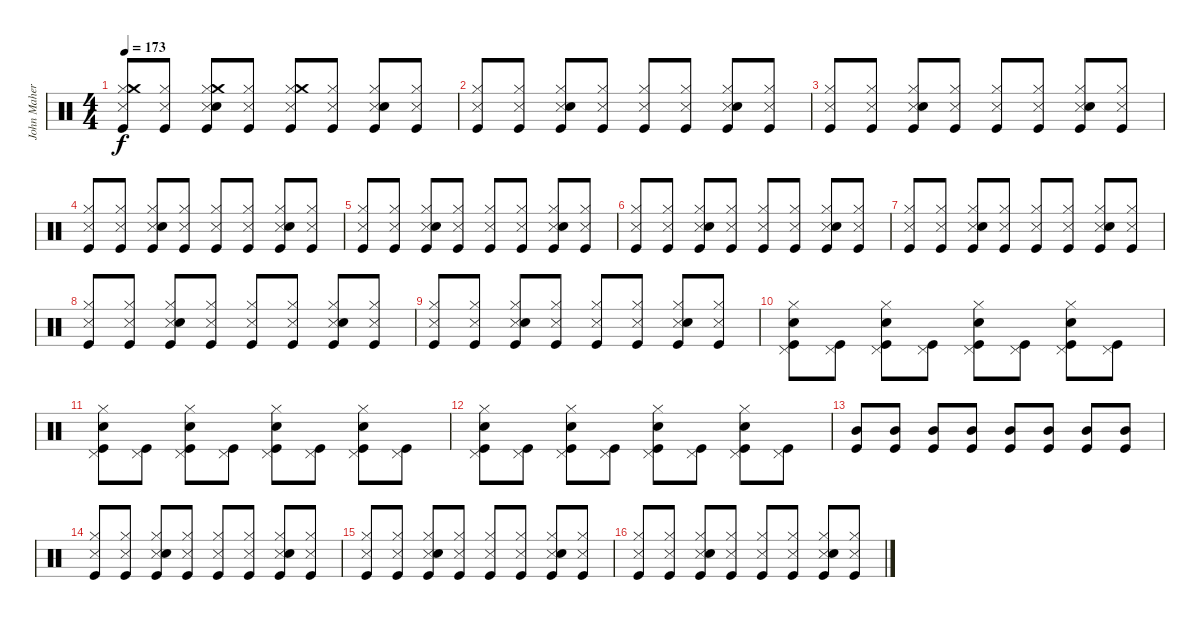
\track ("John Maher" "John Maher") {instrument percussion}
\staff {score}
\articulation defaults
\ts (4 4)
\tempo 173
\clef neutral
\ks c
("Snare (side stick) 3" "Hi-Hat (closed)" "Crash medium (hit)" "Kick (hit)").8{dy f} ("Snare (side stick) 3" "Hi-Hat (closed)" "Kick (hit)").8 ("Snare (side stick) 3" "Hi-Hat (closed)" "Crash medium (hit)" "Snare (hit) 2" "Kick (hit)").8 ("Snare (side stick) 3" "Hi-Hat (closed)" "Kick (hit)").8 ("Snare (side stick) 3" "Hi-Hat (closed)" "Crash medium (hit)" "Kick (hit)").8 ("Snare (side stick) 3" "Hi-Hat (closed)" "Kick (hit)").8 ("Snare (side stick) 3" "Hi-Hat (closed)" "Snare (hit) 2" "Kick (hit)").8 ("Snare (side stick) 3" "Hi-Hat (closed)" "Kick (hit)").8 |
("Snare (side stick) 3" "Hi-Hat (closed)" "Kick (hit)").8 ("Snare (side stick) 3" "Hi-Hat (closed)" "Kick (hit)").8 ("Snare (side stick) 3" "Hi-Hat (closed)" "Snare (hit) 2" "Kick (hit)").8 ("Snare (side stick) 3" "Hi-Hat (closed)" "Kick (hit)").8 ("Snare (side stick) 3" "Hi-Hat (closed)" "Kick (hit)").8 ("Snare (side stick) 3" "Hi-Hat (closed)" "Kick (hit)").8 ("Snare (side stick) 3" "Hi-Hat (closed)" "Snare (hit) 2" "Kick (hit)").8 ("Snare (side stick) 3" "Hi-Hat (closed)" "Kick (hit)").8 |
("Snare (side stick) 3" "Hi-Hat (closed)" "Kick (hit)").8 ("Snare (side stick) 3" "Hi-Hat (closed)" "Kick (hit)").8 ("Snare (side stick) 3" "Hi-Hat (closed)" "Snare (hit) 2" "Kick (hit)").8 ("Snare (side stick) 3" "Hi-Hat (closed)" "Kick (hit)").8 ("Snare (side stick) 3" "Hi-Hat (closed)" "Kick (hit)").8 ("Snare (side stick) 3" "Hi-Hat (closed)" "Kick (hit)").8 ("Snare (side stick) 3" "Hi-Hat (closed)" "Snare (hit) 2" "Kick (hit)").8 ("Snare (side stick) 3" "Hi-Hat (closed)" "Kick (hit)").8 |
("Snare (side stick) 3" "Hi-Hat (closed)" "Kick (hit)").8 ("Snare (side stick) 3" "Hi-Hat (closed)" "Kick (hit)").8 ("Snare (side stick) 3" "Hi-Hat (closed)" "Snare (hit) 2" "Kick (hit)").8 ("Snare (side stick) 3" "Hi-Hat (closed)" "Kick (hit)").8 ("Snare (side stick) 3" "Hi-Hat (closed)" "Kick (hit)").8 ("Snare (side stick) 3" "Hi-Hat (closed)" "Kick (hit)").8 ("Snare (side stick) 3" "Hi-Hat (closed)" "Snare (hit) 2" "Kick (hit)").8 ("Snare (side stick) 3" "Hi-Hat (closed)" "Kick (hit)").8 |
("Snare (side stick) 3" "Hi-Hat (closed)" "Kick (hit)").8 ("Snare (side stick) 3" "Hi-Hat (closed)" "Kick (hit)").8 ("Snare (side stick) 3" "Hi-Hat (closed)" "Snare (hit) 2" "Kick (hit)").8 ("Snare (side stick) 3" "Hi-Hat (closed)" "Kick (hit)").8 ("Snare (side stick) 3" "Hi-Hat (closed)" "Kick (hit)").8 ("Snare (side stick) 3" "Hi-Hat (closed)" "Kick (hit)").8 ("Snare (side stick) 3" "Hi-Hat (closed)" "Snare (hit) 2" "Kick (hit)").8 ("Snare (side stick) 3" "Hi-Hat (closed)" "Kick (hit)").8 |
("Snare (side stick) 3" "Hi-Hat (closed)" "Kick (hit)").8 ("Snare (side stick) 3" "Hi-Hat (closed)" "Kick (hit)").8 ("Snare (side stick) 3" "Hi-Hat (closed)" "Snare (hit) 2" "Kick (hit)").8 ("Snare (side stick) 3" "Hi-Hat (closed)" "Kick (hit)").8 ("Snare (side stick) 3" "Hi-Hat (closed)" "Kick (hit)").8 ("Snare (side stick) 3" "Hi-Hat (closed)" "Kick (hit)").8 ("Snare (side stick) 3" "Hi-Hat (closed)" "Snare (hit) 2" "Kick (hit)").8 ("Snare (side stick) 3" "Hi-Hat (closed)" "Kick (hit)").8 |
("Snare (side stick) 3" "Hi-Hat (closed)" "Kick (hit)").8 ("Snare (side stick) 3" "Hi-Hat (closed)" "Kick (hit)").8 ("Snare (side stick) 3" "Hi-Hat (closed)" "Snare (hit) 2" "Kick (hit)").8 ("Snare (side stick) 3" "Hi-Hat (closed)" "Kick (hit)").8 ("Snare (side stick) 3" "Hi-Hat (closed)" "Kick (hit)").8 ("Snare (side stick) 3" "Hi-Hat (closed)" "Kick (hit)").8 ("Snare (side stick) 3" "Hi-Hat (closed)" "Snare (hit) 2" "Kick (hit)").8 ("Snare (side stick) 3" "Hi-Hat (closed)" "Kick (hit)").8 |
("Snare (side stick) 3" "Hi-Hat (closed)" "Kick (hit)").8 ("Snare (side stick) 3" "Hi-Hat (closed)" "Kick (hit)").8 ("Snare (side stick) 3" "Hi-Hat (closed)" "Snare (hit) 2" "Kick (hit)").8 ("Snare (side stick) 3" "Hi-Hat (closed)" "Kick (hit)").8 ("Snare (side stick) 3" "Hi-Hat (closed)" "Kick (hit)").8 ("Snare (side stick) 3" "Hi-Hat (closed)" "Kick (hit)").8 ("Snare (side stick) 3" "Hi-Hat (closed)" "Snare (hit) 2" "Kick (hit)").8 ("Snare (side stick) 3" "Hi-Hat (closed)" "Kick (hit)").8 |
("Snare (side stick) 3" "Hi-Hat (closed)" "Kick (hit)").8 ("Snare (side stick) 3" "Hi-Hat (closed)" "Kick (hit)").8 ("Snare (side stick) 3" "Hi-Hat (closed)" "Snare (hit) 2" "Kick (hit)").8 ("Snare (side stick) 3" "Hi-Hat (closed)" "Kick (hit)").8 ("Snare (side stick) 3" "Hi-Hat (closed)" "Kick (hit)").8 ("Snare (side stick) 3" "Hi-Hat (closed)" "Kick (hit)").8 ("Snare (side stick) 3" "Hi-Hat (closed)" "Snare (hit) 2" "Kick (hit)").8 ("Snare (side stick) 3" "Hi-Hat (closed)" "Kick (hit)").8 |
("Pedal Hi-Hat (hit)" "Hi-Hat (closed)" "Snare (hit) 2" "Kick (hit)").8 ("Pedal Hi-Hat (hit)" "Kick (hit)").8 ("Pedal Hi-Hat (hit)" "Hi-Hat (closed)" "Snare (hit) 2" "Kick (hit)").8 ("Pedal Hi-Hat (hit)" "Kick (hit)").8 ("Pedal Hi-Hat (hit)" "Hi-Hat (closed)" "Snare (hit) 2" "Kick (hit)").8 ("Pedal Hi-Hat (hit)" "Kick (hit)").8 ("Pedal Hi-Hat (hit)" "Hi-Hat (closed)" "Snare (hit) 2" "Kick (hit)").8 ("Pedal Hi-Hat (hit)" "Kick (hit)").8 |
("Pedal Hi-Hat (hit)" "Hi-Hat (closed)" "Snare (hit) 2" "Kick (hit)").8 ("Pedal Hi-Hat (hit)" "Kick (hit)").8 ("Pedal Hi-Hat (hit)" "Hi-Hat (closed)" "Snare (hit) 2" "Kick (hit)").8 ("Pedal Hi-Hat (hit)" "Kick (hit)").8 ("Pedal Hi-Hat (hit)" "Hi-Hat (closed)" "Snare (hit) 2" "Kick (hit)").8 ("Pedal Hi-Hat (hit)" "Kick (hit)").8 ("Pedal Hi-Hat (hit)" "Hi-Hat (closed)" "Snare (hit) 2" "Kick (hit)").8 ("Pedal Hi-Hat (hit)" "Kick (hit)").8 |
("Pedal Hi-Hat (hit)" "Hi-Hat (closed)" "Snare (hit) 2" "Kick (hit)").8 ("Pedal Hi-Hat (hit)" "Kick (hit)").8 ("Pedal Hi-Hat (hit)" "Hi-Hat (closed)" "Snare (hit) 2" "Kick (hit)").8 ("Pedal Hi-Hat (hit)" "Kick (hit)").8 ("Pedal Hi-Hat (hit)" "Hi-Hat (closed)" "Snare (hit) 2" "Kick (hit)").8 ("Pedal Hi-Hat (hit)" "Kick (hit)").8 ("Pedal Hi-Hat (hit)" "Hi-Hat (closed)" "Snare (hit) 2" "Kick (hit)").8 ("Pedal Hi-Hat (hit)" "Kick (hit)").8 |
("Mid Tom (hit)" "Kick (hit)").8 ("Mid Tom (hit)" "Kick (hit)").8 ("Mid Tom (hit)" "Kick (hit)").8 ("Mid Tom (hit)" "Kick (hit)").8 ("Mid Tom (hit)" "Kick (hit)").8 ("Mid Tom (hit)" "Kick (hit)").8 ("Mid Tom (hit)" "Kick (hit)").8 ("Mid Tom (hit)" "Kick (hit)").8 |
("Snare (side stick) 3" "Hi-Hat (closed)" "Kick (hit)").8 ("Snare (side stick) 3" "Hi-Hat (closed)" "Kick (hit)").8 ("Snare (side stick) 3" "Hi-Hat (closed)" "Snare (hit) 2" "Kick (hit)").8 ("Snare (side stick) 3" "Hi-Hat (closed)" "Kick (hit)").8 ("Snare (side stick) 3" "Hi-Hat (closed)" "Kick (hit)").8 ("Snare (side stick) 3" "Hi-Hat (closed)" "Kick (hit)").8 ("Snare (side stick) 3" "Hi-Hat (closed)" "Snare (hit) 2" "Kick (hit)").8 ("Snare (side stick) 3" "Hi-Hat (closed)" "Kick (hit)").8 |
("Snare (side stick) 3" "Hi-Hat (closed)" "Kick (hit)").8 ("Snare (side stick) 3" "Hi-Hat (closed)" "Kick (hit)").8 ("Snare (side stick) 3" "Hi-Hat (closed)" "Snare (hit) 2" "Kick (hit)").8 ("Snare (side stick) 3" "Hi-Hat (closed)" "Kick (hit)").8 ("Snare (side stick) 3" "Hi-Hat (closed)" "Kick (hit)").8 ("Snare (side stick) 3" "Hi-Hat (closed)" "Kick (hit)").8 ("Snare (side stick) 3" "Hi-Hat (closed)" "Snare (hit) 2" "Kick (hit)").8 ("Snare (side stick) 3" "Hi-Hat (closed)" "Kick (hit)").8 |
("Snare (side stick) 3" "Hi-Hat (closed)" "Kick (hit)").8 ("Snare (side stick) 3" "Hi-Hat (closed)" "Kick (hit)").8 ("Snare (side stick) 3" "Hi-Hat (closed)" "Snare (hit) 2" "Kick (hit)").8 ("Snare (side stick) 3" "Hi-Hat (closed)" "Kick (hit)").8 ("Snare (side stick) 3" "Hi-Hat (closed)" "Kick (hit)").8 ("Snare (side stick) 3" "Hi-Hat (closed)" "Kick (hit)").8 ("Snare (side stick) 3" "Hi-Hat (closed)" "Snare (hit) 2" "Kick (hit)").8 ("Snare (side stick) 3" "Hi-Hat (closed)" "Kick (hit)").8
